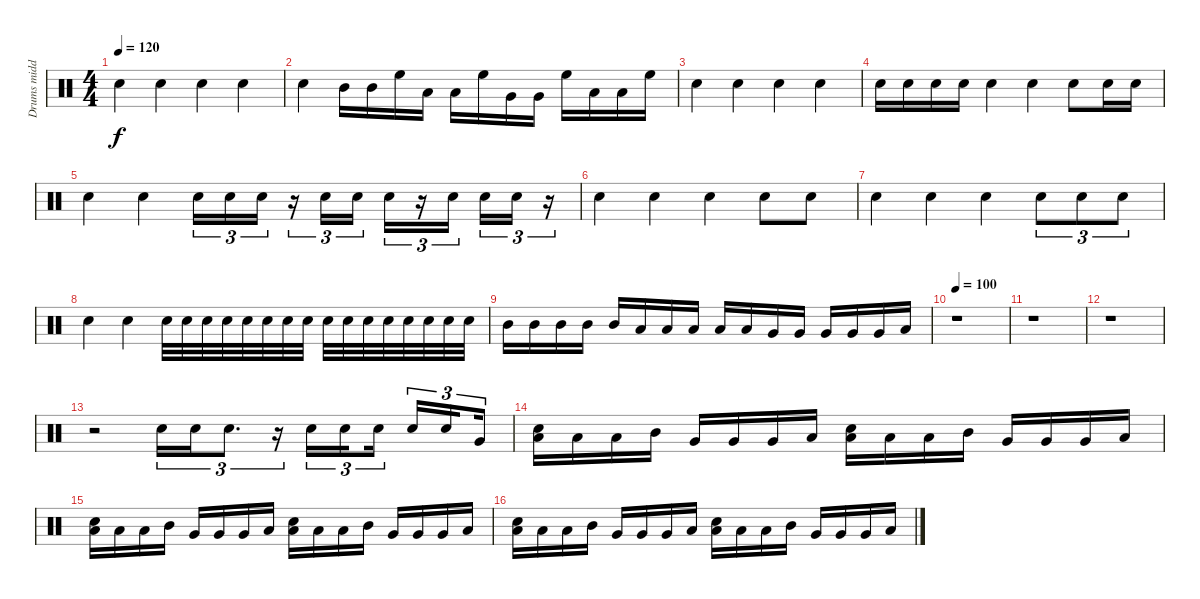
\track ("Drums middle" "Drums midd") {instrument percussion}
\staff {score}
\articulation defaults
\ts (4 4)
\tempo 120
\clef neutral
\ks c "Electric Snare (hit)".4{dy f} "Electric Snare (hit)".4 "Electric Snare (hit)".4 "Electric Snare (hit)".4
|
"Electric Snare (hit)".4 "Mid Tom (hit)".16 "Mid Tom (hit)".16 "High Floor Tom (hit)".16 "Low Tom (hit)".16 "Low Tom (hit)".16 "High Floor Tom (hit)".16 "Very Low Tom (hit)".16 "Very Low Tom (hit)".16 "High Floor Tom (hit)".16 "Low Floor Tom (hit)".16 "Low Floor Tom (hit)".16 "High Floor Tom (hit)".16 |
"Electric Snare (hit)".4 "Electric Snare (hit)".4 "Electric Snare (hit)".4 "Electric Snare (hit)".4 |
"Electric Snare (hit)".16 "Electric Snare (hit)".16 "Electric Snare (hit)".16 "Electric Snare (hit)".16 "Electric Snare (hit)".4 "Electric Snare (hit)".4 "Electric Snare (hit)".8 "Electric Snare (hit)".16 "Electric Snare (hit)".16 |
"Electric Snare (hit)".4 "Electric Snare (hit)".4 "Electric Snare (hit)".16{tu (3 2)} "Electric Snare (hit)".16{tu (3 2)} "Snare (hit) 2".16{tu (3 2)} r.16{tu (3 2)} "Electric Snare (hit)".16{tu (3 2)} "Electric Snare (hit)".16{tu (3 2)} "Snare (hit) 2".16{tu (3 2)} r.16{tu (3 2)} "Electric Snare (hit)".16{tu (3 2) beam splitsecondary} "Electric Snare (hit)".16{tu (3 2)} "Snare (hit) 2".16{tu (3 2)} r.16{tu (3 2)} |
"Electric Snare (hit)".4 "Electric Snare (hit)".4 "Electric Snare (hit)".4 "Electric Snare (hit)".8 "Electric Snare (hit)".8 |
"Electric Snare (hit)".4 "Electric Snare (hit)".4 "Electric Snare (hit)".4 "Electric Snare (hit)".8{tu (3 2)} "Electric Snare (hit)".8{tu (3 2)} "Electric Snare (hit)".8{tu (3 2)} |
"Electric Snare (hit)".4 "Electric Snare (hit)".4 "Electric Snare (hit)".32 "Electric Snare (hit)".32 "Electric Snare (hit)".32 "Electric Snare (hit)".32 "Electric Snare (hit)".32 "Electric Snare (hit)".32 "Electric Snare (hit)".32 "Electric Snare (hit)".32 "Electric Snare (hit)".32 "Electric Snare (hit)".32 "Electric Snare (hit)".32 "Electric Snare (hit)".32 "Electric Snare (hit)".32 "Electric Snare (hit)".32 "Electric Snare (hit)".32 "Electric Snare (hit)".32 |
"Mid Tom (hit)".16 "Mid Tom (hit)".16 "Mid Tom (hit)".16 "Mid Tom (hit)".16 "Mid Tom (hit)".16 "Low Tom (hit)".16 "Low Tom (hit)".16 "Low Tom (hit)".16 "Low Tom (hit)".16 "Low Tom (hit)".16 "Very Low Tom (hit)".16 "Very Low Tom (hit)".16 "Very Low Tom (hit)".16 "Very Low Tom (hit)".16 "Very Low Tom (hit)".16 "Low Floor Tom (hit)".16 |
\tempo 100
r.1 |
r.1 |
r.1 |
r.2 "Electric Snare (hit)".16{tu (3 2)} "Electric Snare (hit)".16{tu (3 2)} "Electric Snare (hit)".8{d tu (3 2)} r.16{tu (3 2)} "Electric Snare (hit)".16{tu (3 2)} "Electric Snare (hit)".16{tu (3 2) beam splitsecondary} "Electric Snare (hit)".16{tu (3 2)} "Electric Snare (hit)".16{tu (3 2)} "Electric Snare (hit)".16{tu (3 2) beam splitsecondary} "Very Low Tom (hit)".16{tu (3 2)} |
("Electric Snare (hit)" "Low Tom (hit)").16 "Low Tom (hit)".16 "Low Tom (hit)".16 "Mid Tom (hit)".16 "Very Low Tom (hit)".16 "Very Low Tom (hit)".16 "Very Low Tom (hit)".16 "Low Floor Tom (hit)".16 ("Electric Snare (hit)" "Low Tom (hit)").16 "Low Tom (hit)".16 "Low Tom (hit)".16 "Mid Tom (hit)".16 "Very Low Tom (hit)".16 "Very Low Tom (hit)".16 "Very Low Tom (hit)".16 "Low Floor Tom (hit)".16 |
("Electric Snare (hit)" "Low Tom (hit)").16 "Low Tom (hit)".16 "Low Tom (hit)".16 "Mid Tom (hit)".16 "Very Low Tom (hit)".16 "Very Low Tom (hit)".16 "Very Low Tom (hit)".16 "Low Floor Tom (hit)".16 ("Electric Snare (hit)" "Low Tom (hit)").16 "Low Tom (hit)".16 "Low Tom (hit)".16 "Mid Tom (hit)".16 "Very Low Tom (hit)".16 "Very Low Tom (hit)".16 "Very Low Tom (hit)".16 "Low Floor Tom (hit)".16 |
("Electric Snare (hit)" "Low Tom (hit)").16 "Low Tom (hit)".16 "Low Tom (hit)".16 "Mid Tom (hit)".16 "Very Low Tom (hit)".16 "Very Low Tom (hit)".16 "Very Low Tom (hit)".16 "Low Floor Tom (hit)".16 ("Electric Snare (hit)" "Low Tom (hit)").16 "Low Tom (hit)".16 "Low Tom (hit)".16 "Mid Tom (hit)".16 "Very Low Tom (hit)".16 "Very Low Tom (hit)".16 "Very Low Tom (hit)".16 "Low Floor Tom (hit)".16
